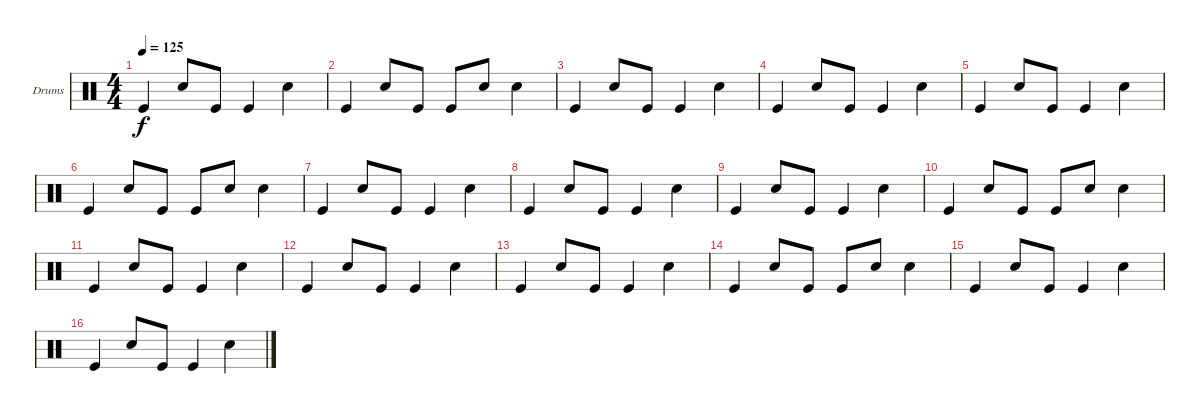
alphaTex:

\bracketExtendMode groupsimilarinstruments
\firstSystemTrackNameOrientation horizontal
\otherSystemsTrackNameOrientation horizontal
\track ("batterie" "Drums") {instrument percussion}
\staff {score}
\articulation defaults
\ts (4 4)
\tempo 125
\clef neutral
\ks c "Kick (hit)".4{dy f} "Snare (hit) 2".8 "Kick (hit)".8 "Kick (hit)".4 "Snare (hit) 2".4
|
"Kick (hit)".4 "Snare (hit) 2".8 "Kick (hit)".8 "Kick (hit)".8 "Snare (hit) 2".8 "Snare (hit) 2".4 |
"Kick (hit)".4 "Snare (hit) 2".8 "Kick (hit)".8 "Kick (hit)".4 "Snare (hit) 2".4 |
"Kick (hit)".4 "Snare (hit) 2".8 "Kick (hit)".8 "Kick (hit)".4 "Snare (hit) 2".4 |
"Kick (hit)".4 "Snare (hit) 2".8 "Kick (hit)".8 "Kick (hit)".4 "Snare (hit) 2".4 |
"Kick (hit)".4 "Snare (hit) 2".8 "Kick (hit)".8 "Kick (hit)".8 "Snare (hit) 2".8 "Snare (hit) 2".4 |
"Kick (hit)".4 "Snare (hit) 2".8 "Kick (hit)".8 "Kick (hit)".4 "Snare (hit) 2".4 |
"Kick (hit)".4 "Snare (hit) 2".8 "Kick (hit)".8 "Kick (hit)".4 "Snare (hit) 2".4 |
"Kick (hit)".4 "Snare (hit) 2".8 "Kick (hit)".8 "Kick (hit)".4 "Snare (hit) 2".4 |
"Kick (hit)".4 "Snare (hit) 2".8 "Kick (hit)".8 "Kick (hit)".8 "Snare (hit) 2".8 "Snare (hit) 2".4 |
"Kick (hit)".4 "Snare (hit) 2".8 "Kick (hit)".8 "Kick (hit)".4 "Snare (hit) 2".4 |
"Kick (hit)".4 "Snare (hit) 2".8 "Kick (hit)".8 "Kick (hit)".4 "Snare (hit) 2".4 |
"Kick (hit)".4 "Snare (hit) 2".8 "Kick (hit)".8 "Kick (hit)".4 "Snare (hit) 2".4 |
"Kick (hit)".4 "Snare (hit) 2".8 "Kick (hit)".8 "Kick (hit)".8 "Snare (hit) 2".8 "Snare (hit) 2".4 |
"Kick (hit)".4 "Snare (hit) 2".8 "Kick (hit)".8 "Kick (hit)".4 "Snare (hit) 2".4 |
"Kick (hit)".4 "Snare (hit) 2".8 "Kick (hit)".8 "Kick (hit)".4 "Snare (hit) 2".4
